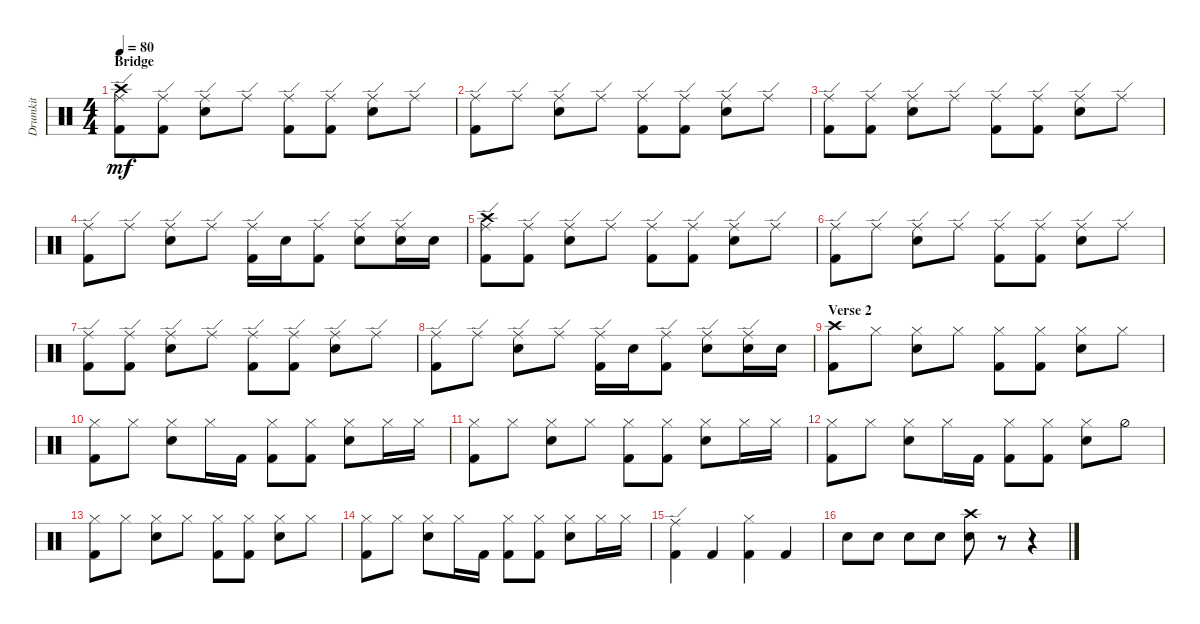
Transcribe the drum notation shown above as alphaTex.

\track ("Drumkit" "Drumkit") {instrument percussion}
\staff {score}
\articulation defaults
\ts (4 4)
\section ("" "Bridge")
\tempo 80
\clef neutral
\ks c
("Kick (hit) 2" "Crash high (hit)" "Ride (edge)").8{dy mf} ("Kick (hit) 2" "Ride (edge)").8 ("Snare (hit) 2" "Ride (edge)").8 "Ride (edge)".8 ("Kick (hit) 2" "Ride (edge)").8 ("Kick (hit) 2" "Ride (edge)").8 ("Snare (hit) 2" "Ride (edge)").8 "Ride (edge)".8 |
("Ride (edge)" "Kick (hit) 2").8 "Ride (edge)".8 ("Ride (edge)" "Snare (hit) 2").8 "Ride (edge)".8 ("Ride (edge)" "Kick (hit) 2").8 ("Ride (edge)" "Kick (hit) 2").8 ("Ride (edge)" "Snare (hit) 2").8 "Ride (edge)".8 |
("Ride (edge)" "Kick (hit) 2").8 ("Ride (edge)" "Kick (hit) 2").8 ("Ride (edge)" "Snare (hit) 2").8 "Ride (edge)".8 ("Ride (edge)" "Kick (hit) 2").8 ("Ride (edge)" "Kick (hit) 2").8 ("Ride (edge)" "Snare (hit) 2").8 "Ride (edge)".8 |
("Ride (edge)" "Kick (hit) 2").8 "Ride (edge)".8 ("Ride (edge)" "Snare (hit) 2").8 "Ride (edge)".8 ("Ride (edge)" "Kick (hit) 2").16 "Snare (hit) 2".16 ("Ride (edge)" "Kick (hit) 2").8 ("Ride (edge)" "Snare (hit) 2").8 ("Ride (edge)" "Snare (hit) 2").16 "Snare (hit) 2".16 |
("Kick (hit) 2" "Crash high (hit)" "Ride (edge)").8 ("Kick (hit) 2" "Ride (edge)").8 ("Snare (hit) 2" "Ride (edge)").8 "Ride (edge)".8 ("Kick (hit) 2" "Ride (edge)").8 ("Kick (hit) 2" "Ride (edge)").8 ("Snare (hit) 2" "Ride (edge)").8 "Ride (edge)".8 |
("Ride (edge)" "Kick (hit) 2").8 "Ride (edge)".8 ("Ride (edge)" "Snare (hit) 2").8 "Ride (edge)".8 ("Ride (edge)" "Kick (hit) 2").8 ("Ride (edge)" "Kick (hit) 2").8 ("Ride (edge)" "Snare (hit) 2").8 "Ride (edge)".8 |
("Ride (edge)" "Kick (hit) 2").8 ("Ride (edge)" "Kick (hit) 2").8 ("Ride (edge)" "Snare (hit) 2").8 "Ride (edge)".8 ("Ride (edge)" "Kick (hit) 2").8 ("Ride (edge)" "Kick (hit) 2").8 ("Ride (edge)" "Snare (hit) 2").8 "Ride (edge)".8 |
("Ride (edge)" "Kick (hit) 2").8 "Ride (edge)".8 ("Ride (edge)" "Snare (hit) 2").8 "Ride (edge)".8 ("Ride (edge)" "Kick (hit) 2").16 "Snare (hit) 2".16 ("Ride (edge)" "Kick (hit) 2").8 ("Ride (edge)" "Snare (hit) 2").8 ("Ride (edge)" "Snare (hit) 2").16 "Snare (hit) 2".16 |
\section ("" "Verse 2")
("Crash high (hit)" "Kick (hit) 2").8 "Hi-Hat (closed)".8 ("Hi-Hat (closed)" "Snare (hit) 2").8 "Hi-Hat (closed)".8 ("Hi-Hat (closed)" "Kick (hit) 2").8 ("Hi-Hat (closed)" "Kick (hit) 2").8 ("Hi-Hat (closed)" "Snare (hit) 2").8 "Hi-Hat (closed)".8 |
("Hi-Hat (closed)" "Kick (hit) 2").8 "Hi-Hat (closed)".8 ("Hi-Hat (closed)" "Snare (hit) 2").8 "Hi-Hat (closed)".16 "Kick (hit) 2".16 ("Hi-Hat (closed)" "Kick (hit) 2").8 ("Hi-Hat (closed)" "Kick (hit) 2").8 ("Hi-Hat (closed)" "Snare (hit) 2").8 "Hi-Hat (closed)".16 "Hi-Hat (closed)".16 |
("Hi-Hat (closed)" "Kick (hit) 2").8 "Hi-Hat (closed)".8 ("Hi-Hat (closed)" "Snare (hit) 2").8 "Hi-Hat (closed)".8 ("Hi-Hat (closed)" "Kick (hit) 2").8 ("Hi-Hat (closed)" "Kick (hit) 2").8 ("Hi-Hat (closed)" "Snare (hit) 2").8 "Hi-Hat (closed)".16 "Hi-Hat (closed)".16 |
("Hi-Hat (closed)" "Kick (hit) 2").8 "Hi-Hat (closed)".8 ("Hi-Hat (closed)" "Snare (hit) 2").8 "Hi-Hat (closed)".16 "Kick (hit) 2".16 ("Hi-Hat (closed)" "Kick (hit) 2").8 ("Hi-Hat (closed)" "Kick (hit) 2").8 ("Hi-Hat (closed)" "Snare (hit) 2").8 "Hi-Hat (half)".8 |
("Hi-Hat (closed)" "Kick (hit) 2").8 "Hi-Hat (closed)".8 ("Hi-Hat (closed)" "Snare (hit) 2").8 "Hi-Hat (closed)".8 ("Hi-Hat (closed)" "Kick (hit) 2").8 ("Hi-Hat (closed)" "Kick (hit) 2").8 ("Hi-Hat (closed)" "Snare (hit) 2").8 "Hi-Hat (closed)".8 |
("Hi-Hat (closed)" "Kick (hit) 2").8 "Hi-Hat (closed)".8 ("Hi-Hat (closed)" "Snare (hit) 2").8 "Hi-Hat (closed)".16 "Kick (hit) 2".16 ("Hi-Hat (closed)" "Kick (hit) 2").8 ("Hi-Hat (closed)" "Kick (hit) 2").8 ("Hi-Hat (closed)" "Snare (hit) 2").8 "Hi-Hat (closed)".16 "Hi-Hat (closed)".16 |
("Ride (edge)" "Kick (hit) 2").4 "Kick (hit) 2".4 ("Kick (hit) 2" "Hi-Hat (closed)").4 "Kick (hit) 2".4 |
"Snare (hit) 2".8 "Snare (hit) 2".8 "Snare (hit) 2".8 "Snare (hit) 2".8 ("Snare (hit) 2" "Crash high (hit)").8 r.8 r.4
